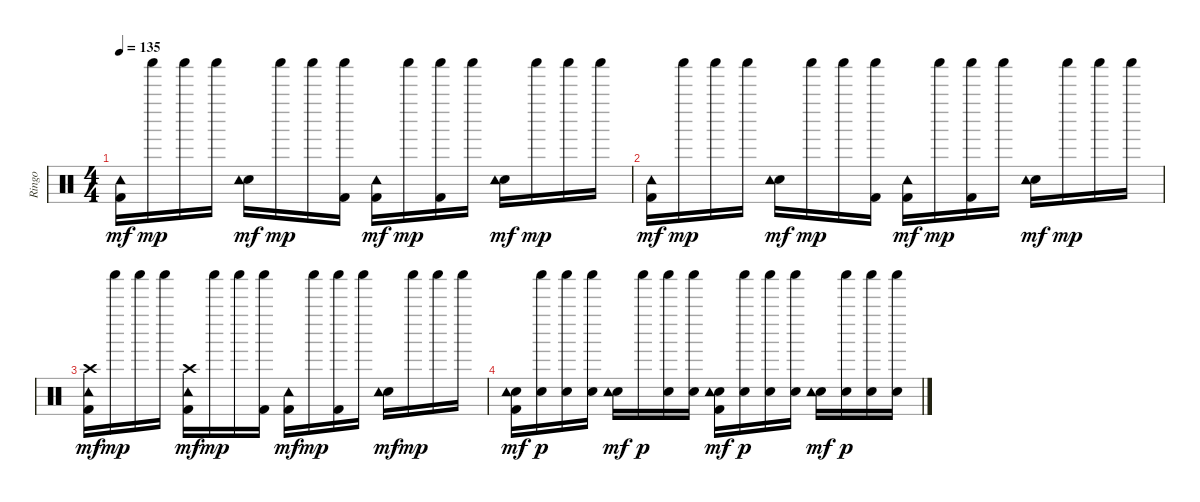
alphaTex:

\track ("Ringo" "Ringo") {instrument percussion}
\staff {score}
\articulation defaults
\ts (4 4)
\tempo 135
\clef neutral
\ks c
("Kick (hit) 2" "Tambourine (hit)").16{dy mf} "Shaker (hit)".16{dy mp} "Shaker (hit)".16 "Shaker (hit)".16 ("Electric Snare (hit)" "Tambourine (hit)").16{dy mf} "Shaker (hit)".16{dy mp} "Shaker (hit)".16 ("Kick (hit) 2" "Shaker (hit)").16 ("Kick (hit) 2" "Tambourine (hit)").16{dy mf} "Shaker (hit)".16{dy mp} ("Kick (hit) 2" "Shaker (hit)").16 "Shaker (hit)".16 ("Electric Snare (hit)" "Tambourine (hit)").16{dy mf} "Shaker (hit)".16{dy mp} "Shaker (hit)".16 "Shaker (hit)".16 |
("Kick (hit) 2" "Tambourine (hit)").16{dy mf} "Shaker (hit)".16{dy mp} "Shaker (hit)".16 "Shaker (hit)".16 ("Electric Snare (hit)" "Tambourine (hit)").16{dy mf} "Shaker (hit)".16{dy mp} "Shaker (hit)".16 ("Kick (hit) 2" "Shaker (hit)").16 ("Kick (hit) 2" "Tambourine (hit)").16{dy mf} "Shaker (hit)".16{dy mp} ("Kick (hit) 2" "Shaker (hit)").16 "Shaker (hit)".16 ("Electric Snare (hit)" "Tambourine (hit)").16{dy mf} "Shaker (hit)".16{dy mp} "Shaker (hit)".16 "Shaker (hit)".16 |
("Kick (hit) 2" "Tambourine (hit)" "Crash high (hit)").16{dy mf} "Shaker (hit)".16{dy mp} "Shaker (hit)".16 "Shaker (hit)".16 ("Kick (hit) 2" "Tambourine (hit)" "Crash high (hit)").16{dy mf} "Shaker (hit)".16{dy mp} "Shaker (hit)".16 ("Kick (hit) 2" "Shaker (hit)").16 ("Kick (hit) 2" "Tambourine (hit)").16{dy mf} "Shaker (hit)".16{dy mp} ("Kick (hit) 2" "Shaker (hit)").16 "Shaker (hit)".16 ("Electric Snare (hit)" "Tambourine (hit)").16{dy mf} "Shaker (hit)".16{dy mp} "Shaker (hit)".16 "Shaker (hit)".16 |
("Electric Snare (hit)" "Kick (hit) 2" "Tambourine (hit)").16{dy mf} ("Electric Snare (hit)" "Shaker (hit)").16{dy p} ("Electric Snare (hit)" "Shaker (hit)").16 ("Electric Snare (hit)" "Shaker (hit)").16 ("Electric Snare (hit)" "Tambourine (hit)").16{dy mf} "Shaker (hit)".16{dy p} ("Electric Snare (hit)" "Shaker (hit)").16 ("Electric Snare (hit)" "Shaker (hit)").16 ("Electric Snare (hit)" "Kick (hit) 2" "Tambourine (hit)").16{dy mf} ("Electric Snare (hit)" "Shaker (hit)").16{dy p} ("Electric Snare (hit)" "Shaker (hit)").16 ("Electric Snare (hit)" "Shaker (hit)").16 ("Electric Snare (hit)" "Tambourine (hit)").16{dy mf} ("Electric Snare (hit)" "Shaker (hit)").16{dy p} ("Electric Snare (hit)" "Shaker (hit)").16 ("Electric Snare (hit)" "Shaker (hit)").16
